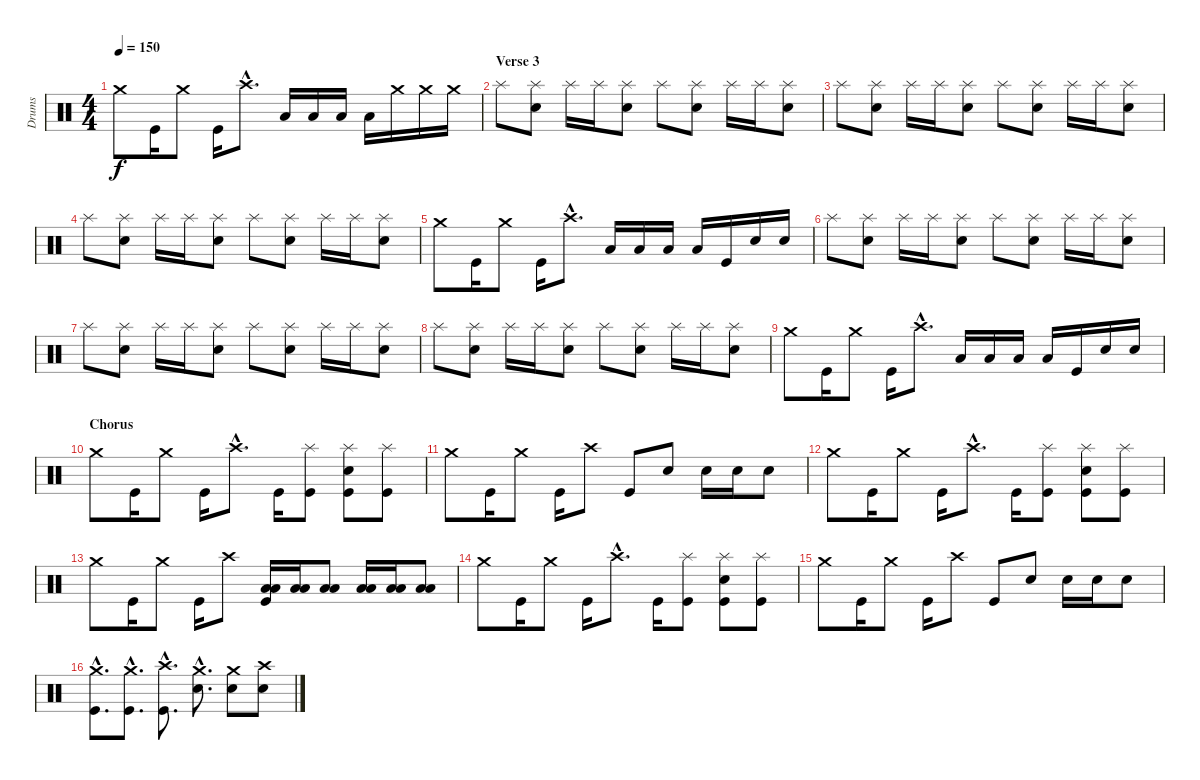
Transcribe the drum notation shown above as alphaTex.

\track ("Drums" "Drums") {instrument percussion}
\staff {score}
\articulation defaults
\ts (4 4)
\tempo 150
\clef neutral
\ks c "Crash medium (hit)".8{dy f} "Kick (hit)".16 "Crash medium (hit)".8 "Kick (hit)".16 "Crash high (hit)"{hac}.8{d} "Low Tom (hit)".16 "Low Tom (hit)".16 "Low Tom (hit)".16 "Low Tom (hit)".16 "Crash medium (hit)".16 "Crash medium (hit)".16 "Crash medium (hit)".16
|
\section ("" "Verse 3")
"Splash (hit)".8 ("Splash (hit)" "Snare (hit) 2").8 "Splash (hit)".16 "Splash (hit)".16 ("Splash (hit)" "Snare (hit) 2").8 "Splash (hit)".8 ("Splash (hit)" "Snare (hit) 2").8 "Splash (hit)".16 "Splash (hit)".16 ("Splash (hit)" "Snare (hit) 2").8 |
"Splash (hit)".8 ("Splash (hit)" "Snare (hit) 2").8 "Splash (hit)".16 "Splash (hit)".16 ("Splash (hit)" "Snare (hit) 2").8 "Splash (hit)".8 ("Splash (hit)" "Snare (hit) 2").8 "Splash (hit)".16 "Splash (hit)".16 ("Splash (hit)" "Snare (hit) 2").8 |
"Splash (hit)".8 ("Splash (hit)" "Snare (hit) 2").8 "Splash (hit)".16 "Splash (hit)".16 ("Splash (hit)" "Snare (hit) 2").8 "Splash (hit)".8 ("Splash (hit)" "Snare (hit) 2").8 "Splash (hit)".16 "Splash (hit)".16 ("Splash (hit)" "Snare (hit) 2").8 |
"Crash medium (hit)".8 "Kick (hit)".16 "Crash medium (hit)".8 "Kick (hit)".16 "Crash high (hit)"{hac}.8{d} "Low Tom (hit)".16 "Low Tom (hit)".16 "Low Tom (hit)".16 "Low Tom (hit)".16 "Kick (hit)".16 "Snare (hit) 2".16 "Snare (hit) 2".16 |
"Splash (hit)".8 ("Splash (hit)" "Snare (hit) 2").8 "Splash (hit)".16 "Splash (hit)".16 ("Splash (hit)" "Snare (hit) 2").8 "Splash (hit)".8 ("Splash (hit)" "Snare (hit) 2").8 "Splash (hit)".16 "Splash (hit)".16 ("Splash (hit)" "Snare (hit) 2").8 |
"Splash (hit)".8 ("Splash (hit)" "Snare (hit) 2").8 "Splash (hit)".16 "Splash (hit)".16 ("Splash (hit)" "Snare (hit) 2").8 "Splash (hit)".8 ("Splash (hit)" "Snare (hit) 2").8 "Splash (hit)".16 "Splash (hit)".16 ("Splash (hit)" "Snare (hit) 2").8 |
"Splash (hit)".8 ("Splash (hit)" "Snare (hit) 2").8 "Splash (hit)".16 "Splash (hit)".16 ("Splash (hit)" "Snare (hit) 2").8 "Splash (hit)".8 ("Splash (hit)" "Snare (hit) 2").8 "Splash (hit)".16 "Splash (hit)".16 ("Splash (hit)" "Snare (hit) 2").8 |
"Crash medium (hit)".8 "Kick (hit)".16 "Crash medium (hit)".8 "Kick (hit)".16 "Crash high (hit)"{hac}.8{d} "Low Tom (hit)".16 "Low Tom (hit)".16 "Low Tom (hit)".16 "Low Tom (hit)".16 "Kick (hit)".16 "Snare (hit) 2".16 "Snare (hit) 2".16 |
\section ("" "Chorus")
"Crash medium (hit)".8 "Kick (hit)".16 "Crash medium (hit)".8 "Kick (hit)".16 "Crash high (hit)"{hac}.8{d} "Kick (hit)".16 ("Splash (hit)" "Kick (hit)").8 ("Splash (hit)" "Snare (hit) 2" "Kick (hit)").8 ("Splash (hit)" "Kick (hit)").8 |
"Crash medium (hit)".8 "Kick (hit)".16 "Crash medium (hit)".8 "Kick (hit)".16 "Crash high (hit)".8 "Kick (hit)".8 "Snare (hit) 2".8 "Snare (hit) 2".16 "Snare (hit) 2".16 "Snare (hit) 2".8 |
"Crash medium (hit)".8 "Kick (hit)".16 "Crash medium (hit)".8 "Kick (hit)".16 "Crash high (hit)"{hac}.8{d} "Kick (hit)".16 ("Splash (hit)" "Kick (hit)").8 ("Splash (hit)" "Snare (hit) 2" "Kick (hit)").8 ("Splash (hit)" "Kick (hit)").8 |
"Crash medium (hit)".8 "Kick (hit)".16 "Crash medium (hit)".8 "Kick (hit)".16 "Crash high (hit)".8 ("Low Tom (hit)" "Low Tom (hit)" "Kick (hit)").16 ("Low Tom (hit)" "Low Tom (hit)").16 ("Low Tom (hit)" "Low Tom (hit)").8 ("Low Tom (hit)" "Low Tom (hit)").16 ("Low Tom (hit)" "Low Tom (hit)").16 ("Low Tom (hit)" "Low Tom (hit)").8 |
"Crash medium (hit)".8 "Kick (hit)".16 "Crash medium (hit)".8 "Kick (hit)".16 "Crash high (hit)"{hac}.8{d} "Kick (hit)".16 ("Splash (hit)" "Kick (hit)").8 ("Splash (hit)" "Snare (hit) 2" "Kick (hit)").8 ("Splash (hit)" "Kick (hit)").8 |
"Crash medium (hit)".8 "Kick (hit)".16 "Crash medium (hit)".8 "Kick (hit)".16 "Crash high (hit)".8 "Kick (hit)".8 "Snare (hit) 2".8 "Snare (hit) 2".16 "Snare (hit) 2".16 "Snare (hit) 2".8 |
("Crash medium (hit)"{hac} "Kick (hit)"{hac}).8{d} ("Crash medium (hit)"{hac} "Kick (hit)"{hac}).8{d} ("Crash high (hit)"{hac} "Kick (hit)"{hac}).8{d} ("Crash medium (hit)"{hac} "Electric Snare (hit)"{hac}).8{d} ("Crash medium (hit)" "Electric Snare (hit)").8 ("Crash high (hit)" "Electric Snare (hit)").8
